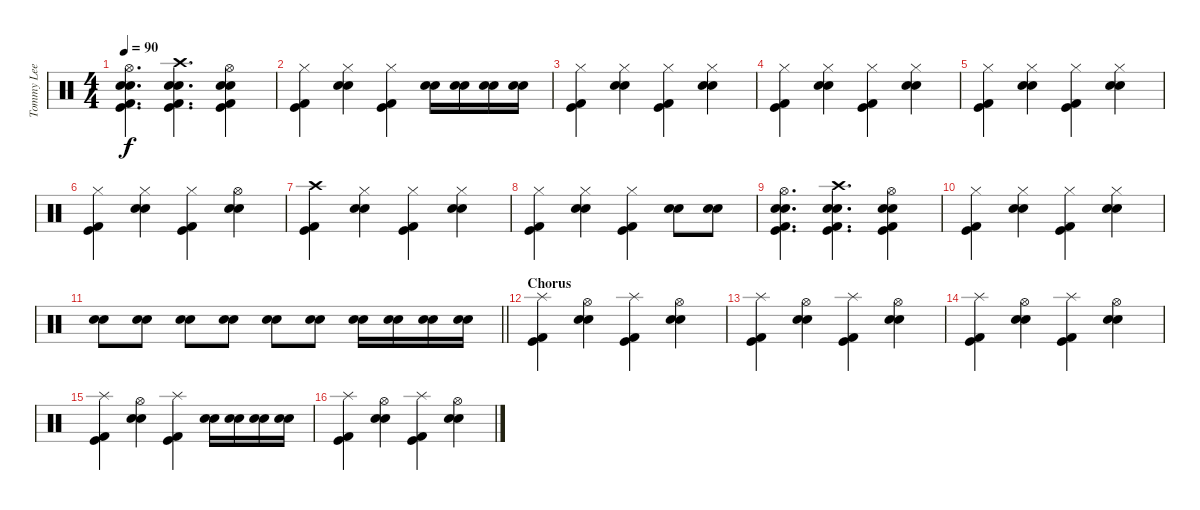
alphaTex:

\track ("Tommy Lee" "Tommy Lee") {instrument percussion}
\staff {score}
\articulation defaults
\ts (4 4)
\tempo 90
\clef neutral
\ks c
("Hi-Hat (open)" "Electric Snare (hit)" "Snare (hit) 2" "Kick (hit) 2" "Kick (hit)").4{d dy f} ("Crash high (hit)" "Electric Snare (hit)" "Snare (hit) 2" "Kick (hit) 2" "Kick (hit)").4{d} ("Hi-Hat (open)" "Electric Snare (hit)" "Snare (hit) 2" "Kick (hit) 2" "Kick (hit)").4 |
("Hi-Hat (closed)" "Kick (hit) 2" "Kick (hit)").4 ("Hi-Hat (closed)" "Electric Snare (hit)" "Snare (hit) 2").4 ("Hi-Hat (closed)" "Kick (hit) 2" "Kick (hit)").4 ("Electric Snare (hit)" "Snare (hit) 2").16 ("Electric Snare (hit)" "Snare (hit) 2").16 ("Electric Snare (hit)" "Snare (hit) 2").16 ("Electric Snare (hit)" "Snare (hit) 2").16 |
("Hi-Hat (closed)" "Kick (hit) 2" "Kick (hit)").4 ("Hi-Hat (closed)" "Electric Snare (hit)" "Snare (hit) 2").4 ("Hi-Hat (closed)" "Kick (hit) 2" "Kick (hit)").4 ("Hi-Hat (closed)" "Electric Snare (hit)" "Snare (hit) 2").4 |
("Hi-Hat (closed)" "Kick (hit) 2" "Kick (hit)").4 ("Hi-Hat (closed)" "Electric Snare (hit)" "Snare (hit) 2").4 ("Hi-Hat (closed)" "Kick (hit) 2" "Kick (hit)").4 ("Hi-Hat (closed)" "Electric Snare (hit)" "Snare (hit) 2").4 |
("Hi-Hat (closed)" "Kick (hit) 2" "Kick (hit)").4 ("Hi-Hat (closed)" "Electric Snare (hit)" "Snare (hit) 2").4 ("Hi-Hat (closed)" "Kick (hit) 2" "Kick (hit)").4 ("Hi-Hat (closed)" "Electric Snare (hit)" "Snare (hit) 2").4 |
("Hi-Hat (closed)" "Kick (hit) 2" "Kick (hit)").4 ("Hi-Hat (closed)" "Electric Snare (hit)" "Snare (hit) 2").4 ("Hi-Hat (closed)" "Kick (hit) 2" "Kick (hit)").4 ("Hi-Hat (open)" "Electric Snare (hit)" "Snare (hit) 2").4 |
("Crash high (hit)" "Kick (hit) 2" "Kick (hit)").4 ("Hi-Hat (closed)" "Electric Snare (hit)" "Snare (hit) 2").4 ("Hi-Hat (closed)" "Kick (hit) 2" "Kick (hit)").4 ("Hi-Hat (closed)" "Electric Snare (hit)" "Snare (hit) 2").4 |
("Hi-Hat (closed)" "Kick (hit) 2" "Kick (hit)").4 ("Hi-Hat (closed)" "Electric Snare (hit)" "Snare (hit) 2").4 ("Hi-Hat (closed)" "Kick (hit) 2" "Kick (hit)").4 ("Electric Snare (hit)" "Snare (hit) 2").8 ("Electric Snare (hit)" "Snare (hit) 2").8 |
("Hi-Hat (open)" "Electric Snare (hit)" "Snare (hit) 2" "Kick (hit) 2" "Kick (hit)").4{d} ("Crash high (hit)" "Electric Snare (hit)" "Snare (hit) 2" "Kick (hit) 2" "Kick (hit)").4{d} ("Hi-Hat (open)" "Electric Snare (hit)" "Snare (hit) 2" "Kick (hit) 2" "Kick (hit)").4 |
("Hi-Hat (closed)" "Kick (hit) 2" "Kick (hit)").4 ("Hi-Hat (closed)" "Electric Snare (hit)" "Snare (hit) 2").4 ("Hi-Hat (closed)" "Kick (hit) 2" "Kick (hit)").4 ("Hi-Hat (closed)" "Electric Snare (hit)" "Snare (hit) 2").4 |
\barLineRight lightlight
("Electric Snare (hit)" "Snare (hit) 2").8 ("Electric Snare (hit)" "Snare (hit) 2").8 ("Electric Snare (hit)" "Snare (hit) 2").8 ("Electric Snare (hit)" "Snare (hit) 2").8 ("Electric Snare (hit)" "Snare (hit) 2").8 ("Electric Snare (hit)" "Snare (hit) 2").8 ("Electric Snare (hit)" "Snare (hit) 2").16 ("Electric Snare (hit)" "Snare (hit) 2").16 ("Electric Snare (hit)" "Snare (hit) 2").16 ("Electric Snare (hit)" "Snare (hit) 2").16 |
\section ("" "Chorus")
("Splash (hit)" "Kick (hit) 2" "Kick (hit)").4 ("Hi-Hat (open)" "Electric Snare (hit)" "Snare (hit) 2").4 ("Splash (hit)" "Kick (hit) 2" "Kick (hit)").4 ("Hi-Hat (open)" "Electric Snare (hit)" "Snare (hit) 2").4 |
("Splash (hit)" "Kick (hit) 2" "Kick (hit)").4 ("Hi-Hat (open)" "Electric Snare (hit)" "Snare (hit) 2").4 ("Splash (hit)" "Kick (hit) 2" "Kick (hit)").4 ("Hi-Hat (open)" "Electric Snare (hit)" "Snare (hit) 2").4 |
("Splash (hit)" "Kick (hit) 2" "Kick (hit)").4 ("Hi-Hat (open)" "Electric Snare (hit)" "Snare (hit) 2").4 ("Splash (hit)" "Kick (hit) 2" "Kick (hit)").4 ("Hi-Hat (open)" "Electric Snare (hit)" "Snare (hit) 2").4 |
("Splash (hit)" "Kick (hit) 2" "Kick (hit)").4 ("Hi-Hat (open)" "Electric Snare (hit)" "Snare (hit) 2").4 ("Splash (hit)" "Kick (hit) 2" "Kick (hit)").4 ("Electric Snare (hit)" "Snare (hit) 2").16 ("Electric Snare (hit)" "Snare (hit) 2").16 ("Electric Snare (hit)" "Snare (hit) 2").16 ("Electric Snare (hit)" "Snare (hit) 2").16 |
("Splash (hit)" "Kick (hit) 2" "Kick (hit)").4 ("Hi-Hat (open)" "Electric Snare (hit)" "Snare (hit) 2").4 ("Splash (hit)" "Kick (hit) 2" "Kick (hit)").4 ("Hi-Hat (open)" "Electric Snare (hit)" "Snare (hit) 2").4
